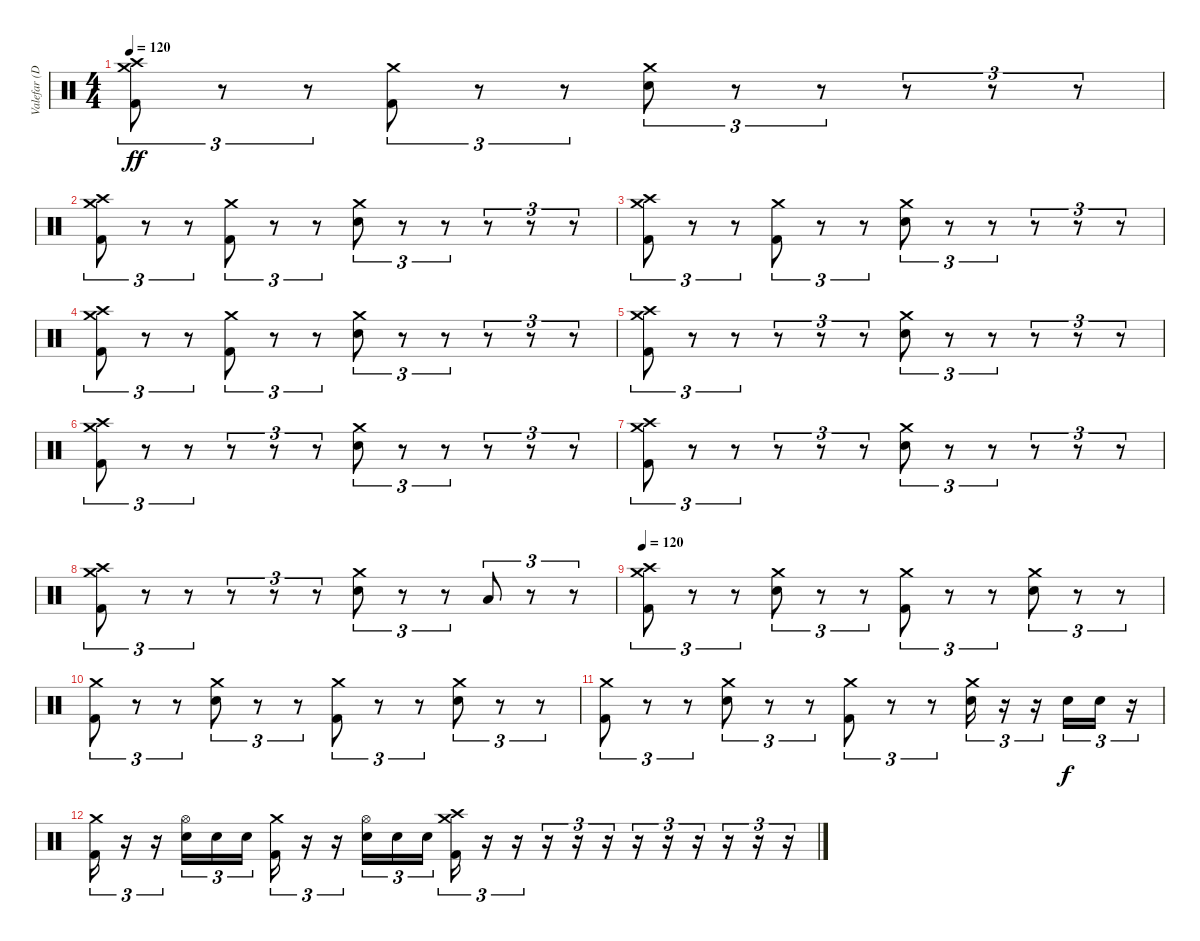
\track ("Valefar (Drums)" "Valefar (D") {instrument percussion}
\staff {score}
\articulation defaults
\ts (4 4)
\tempo 120
\clef neutral
\ks c
("Crash medium (hit)" "Crash high (hit)" "Kick (hit) 2").8{tu (3 2) dy ff} r.8{tu (3 2)} r.8{tu (3 2)} ("Crash medium (hit)" "Kick (hit) 2").8{tu (3 2)} r.8{tu (3 2)} r.8{tu (3 2)} ("Crash medium (hit)" "Electric Snare (hit)").8{tu (3 2)} r.8{tu (3 2)} r.8{tu (3 2)} r.8{tu (3 2)} r.8{tu (3 2)} r.8{tu (3 2)} |
("Crash medium (hit)" "Crash high (hit)" "Kick (hit) 2").8{tu (3 2)} r.8{tu (3 2)} r.8{tu (3 2)} ("Crash medium (hit)" "Kick (hit) 2").8{tu (3 2)} r.8{tu (3 2)} r.8{tu (3 2)} ("Crash medium (hit)" "Electric Snare (hit)").8{tu (3 2)} r.8{tu (3 2)} r.8{tu (3 2)} r.8{tu (3 2)} r.8{tu (3 2)} r.8{tu (3 2)} |
("Crash medium (hit)" "Crash high (hit)" "Kick (hit) 2").8{tu (3 2)} r.8{tu (3 2)} r.8{tu (3 2)} ("Crash medium (hit)" "Kick (hit) 2").8{tu (3 2)} r.8{tu (3 2)} r.8{tu (3 2)} ("Crash medium (hit)" "Electric Snare (hit)").8{tu (3 2)} r.8{tu (3 2)} r.8{tu (3 2)} r.8{tu (3 2)} r.8{tu (3 2)} r.8{tu (3 2)} |
("Crash medium (hit)" "Crash high (hit)" "Kick (hit) 2").8{tu (3 2)} r.8{tu (3 2)} r.8{tu (3 2)} ("Crash medium (hit)" "Kick (hit) 2").8{tu (3 2)} r.8{tu (3 2)} r.8{tu (3 2)} ("Crash medium (hit)" "Electric Snare (hit)").8{tu (3 2)} r.8{tu (3 2)} r.8{tu (3 2)} r.8{tu (3 2)} r.8{tu (3 2)} r.8{tu (3 2)} |
("Crash medium (hit)" "Crash high (hit)" "Kick (hit) 2").8{tu (3 2)} r.8{tu (3 2)} r.8{tu (3 2)} r.8{tu (3 2)} r.8{tu (3 2)} r.8{tu (3 2)} ("Crash medium (hit)" "Electric Snare (hit)").8{tu (3 2)} r.8{tu (3 2)} r.8{tu (3 2)} r.8{tu (3 2)} r.8{tu (3 2)} r.8{tu (3 2)} |
("Crash medium (hit)" "Crash high (hit)" "Kick (hit) 2").8{tu (3 2)} r.8{tu (3 2)} r.8{tu (3 2)} r.8{tu (3 2)} r.8{tu (3 2)} r.8{tu (3 2)} ("Crash medium (hit)" "Electric Snare (hit)").8{tu (3 2)} r.8{tu (3 2)} r.8{tu (3 2)} r.8{tu (3 2)} r.8{tu (3 2)} r.8{tu (3 2)} |
("Crash medium (hit)" "Crash high (hit)" "Kick (hit) 2").8{tu (3 2)} r.8{tu (3 2)} r.8{tu (3 2)} r.8{tu (3 2)} r.8{tu (3 2)} r.8{tu (3 2)} ("Crash medium (hit)" "Electric Snare (hit)").8{tu (3 2)} r.8{tu (3 2)} r.8{tu (3 2)} r.8{tu (3 2)} r.8{tu (3 2)} r.8{tu (3 2)} |
("Crash medium (hit)" "Crash high (hit)" "Kick (hit) 2").8{tu (3 2)} r.8{tu (3 2)} r.8{tu (3 2)} r.8{tu (3 2)} r.8{tu (3 2)} r.8{tu (3 2)} ("Crash medium (hit)" "Electric Snare (hit)").8{tu (3 2)} r.8{tu (3 2)} r.8{tu (3 2)} "Low Floor Tom (hit)".8{tu (3 2)} r.8{tu (3 2)} r.8{tu (3 2)} |
\tempo 120
("Crash medium (hit)" "Crash high (hit)" "Kick (hit) 2").8{tu (3 2)} r.8{tu (3 2)} r.8{tu (3 2)} ("Crash medium (hit)" "Electric Snare (hit)").8{tu (3 2)} r.8{tu (3 2)} r.8{tu (3 2)} ("Crash medium (hit)" "Kick (hit) 2").8{tu (3 2)} r.8{tu (3 2)} r.8{tu (3 2)} ("Crash medium (hit)" "Electric Snare (hit)").8{tu (3 2)} r.8{tu (3 2)} r.8{tu (3 2)} |
("Crash medium (hit)" "Kick (hit) 2").8{tu (3 2)} r.8{tu (3 2)} r.8{tu (3 2)} ("Crash medium (hit)" "Electric Snare (hit)").8{tu (3 2)} r.8{tu (3 2)} r.8{tu (3 2)} ("Crash medium (hit)" "Kick (hit) 2").8{tu (3 2)} r.8{tu (3 2)} r.8{tu (3 2)} ("Crash medium (hit)" "Electric Snare (hit)").8{tu (3 2)} r.8{tu (3 2)} r.8{tu (3 2)} |
("Crash medium (hit)" "Kick (hit) 2").8{tu (3 2)} r.8{tu (3 2)} r.8{tu (3 2)} ("Crash medium (hit)" "Electric Snare (hit)").8{tu (3 2)} r.8{tu (3 2)} r.8{tu (3 2)} ("Crash medium (hit)" "Kick (hit) 2").8{tu (3 2)} r.8{tu (3 2)} r.8{tu (3 2)} ("Crash medium (hit)" "Electric Snare (hit)").16{tu (3 2)} r.16{tu (3 2)} r.16{tu (3 2)} "Electric Snare (hit)".16{tu (3 2) dy f} "Electric Snare (hit)".16{tu (3 2)} r.16{tu (3 2)} |
("Crash medium (hit)" "Kick (hit) 2").16{tu (3 2)} r.16{tu (3 2)} r.16{tu (3 2)} ("Hi-Hat (open)" "Electric Snare (hit)").16{tu (3 2)} "Electric Snare (hit)".16{tu (3 2)} "Electric Snare (hit)".16{tu (3 2)} ("Crash medium (hit)" "Kick (hit) 2").16{tu (3 2)} r.16{tu (3 2)} r.16{tu (3 2)} ("Hi-Hat (open)" "Electric Snare (hit)").16{tu (3 2)} "Electric Snare (hit)".16{tu (3 2)} "Electric Snare (hit)".16{tu (3 2)} ("Crash medium (hit)" "Crash high (hit)" "Kick (hit) 2").16{tu (3 2)} r.16{tu (3 2)} r.16{tu (3 2)} r.16{tu (3 2)} r.16{tu (3 2)} r.16{tu (3 2)} r.16{tu (3 2)} r.16{tu (3 2)} r.16{tu (3 2)} r.16{tu (3 2)} r.16{tu (3 2)} r.16{tu (3 2)}
